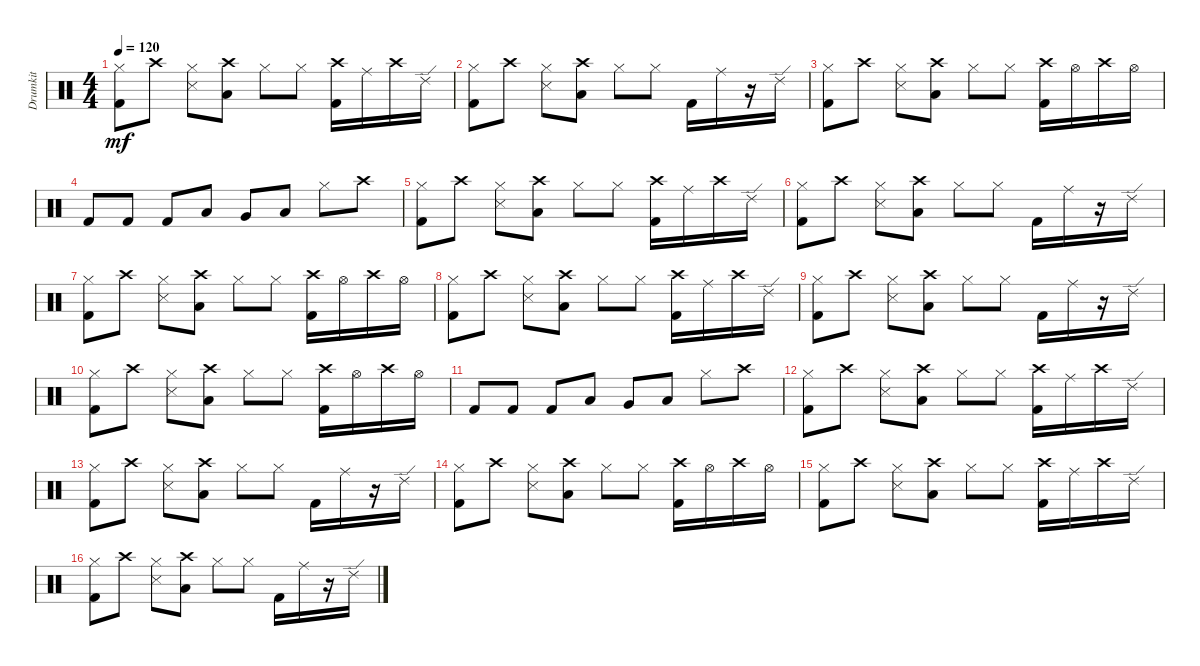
\track ("Drumkit" "Drumkit") {instrument percussion}
\staff {score}
\articulation defaults
\ts (4 4)
\tempo 120
\clef neutral
\ks c
("Hi-Hat (closed)" "Kick (hit) 2").8{dy mf} "Crash high (hit)".8 ("Hi-Hat (closed)" "Snare (side stick) 3").8 ("Crash high (hit)" "Low Floor Tom (hit)").8 "Hi-Hat (closed)".8 "Hi-Hat (closed)".8 ("Crash high (hit)" "Kick (hit) 2").16 "Ride (middle)".16 "Crash high (hit)".16 "Ride (edge) 2".16 |
("Hi-Hat (closed)" "Kick (hit) 2").8 "Crash high (hit)".8 ("Hi-Hat (closed)" "Snare (side stick) 3").8 ("Crash high (hit)" "Low Floor Tom (hit)").8 "Hi-Hat (closed)".8 "Hi-Hat (closed)".8 "Kick (hit) 2".16 "Ride (middle)".16 r.16 "Ride (edge) 2".16 |
("Hi-Hat (closed)" "Kick (hit) 2").8 "Crash high (hit)".8 ("Hi-Hat (closed)" "Snare (side stick) 3").8 ("Crash high (hit)" "Low Floor Tom (hit)").8 "Hi-Hat (closed)".8 "Hi-Hat (closed)".8 ("Crash high (hit)" "Kick (hit) 2").16 "Hi-Hat (open)".16 "Crash high (hit)".16 "Hi-Hat (open)".16 |
"Kick (hit) 2".8 "Kick (hit) 2".8 "Kick (hit) 2".8 "Low Floor Tom (hit)".8 "Very Low Tom (hit)".8 "Low Tom (hit)".8 "Hi-Hat (closed)".8 "Crash high (hit)".8 |
("Hi-Hat (closed)" "Kick (hit) 2").8 "Crash high (hit)".8 ("Hi-Hat (closed)" "Snare (side stick) 3").8 ("Crash high (hit)" "Low Floor Tom (hit)").8 "Hi-Hat (closed)".8 "Hi-Hat (closed)".8 ("Crash high (hit)" "Kick (hit) 2").16 "Ride (middle)".16 "Crash high (hit)".16 "Ride (edge) 2".16 |
("Hi-Hat (closed)" "Kick (hit) 2").8 "Crash high (hit)".8 ("Hi-Hat (closed)" "Snare (side stick) 3").8 ("Crash high (hit)" "Low Floor Tom (hit)").8 "Hi-Hat (closed)".8 "Hi-Hat (closed)".8 "Kick (hit) 2".16 "Ride (middle)".16 r.16 "Ride (edge) 2".16 |
("Hi-Hat (closed)" "Kick (hit) 2").8 "Crash high (hit)".8 ("Hi-Hat (closed)" "Snare (side stick) 3").8 ("Crash high (hit)" "Low Floor Tom (hit)").8 "Hi-Hat (closed)".8 "Hi-Hat (closed)".8 ("Crash high (hit)" "Kick (hit) 2").16 "Hi-Hat (open)".16 "Crash high (hit)".16 "Hi-Hat (open)".16 |
("Hi-Hat (closed)" "Kick (hit) 2").8 "Crash high (hit)".8 ("Hi-Hat (closed)" "Snare (side stick) 3").8 ("Crash high (hit)" "Low Floor Tom (hit)").8 "Hi-Hat (closed)".8 "Hi-Hat (closed)".8 ("Crash high (hit)" "Kick (hit) 2").16 "Ride (middle)".16 "Crash high (hit)".16 "Ride (edge) 2".16 |
("Hi-Hat (closed)" "Kick (hit) 2").8 "Crash high (hit)".8 ("Hi-Hat (closed)" "Snare (side stick) 3").8 ("Crash high (hit)" "Low Floor Tom (hit)").8 "Hi-Hat (closed)".8 "Hi-Hat (closed)".8 "Kick (hit) 2".16 "Ride (middle)".16 r.16 "Ride (edge) 2".16 |
("Hi-Hat (closed)" "Kick (hit) 2").8 "Crash high (hit)".8 ("Hi-Hat (closed)" "Snare (side stick) 3").8 ("Crash high (hit)" "Low Floor Tom (hit)").8 "Hi-Hat (closed)".8 "Hi-Hat (closed)".8 ("Crash high (hit)" "Kick (hit) 2").16 "Hi-Hat (open)".16 "Crash high (hit)".16 "Hi-Hat (open)".16 |
"Kick (hit) 2".8 "Kick (hit) 2".8 "Kick (hit) 2".8 "Low Floor Tom (hit)".8 "Very Low Tom (hit)".8 "Low Tom (hit)".8 "Hi-Hat (closed)".8 "Crash high (hit)".8 |
("Hi-Hat (closed)" "Kick (hit) 2").8 "Crash high (hit)".8 ("Hi-Hat (closed)" "Snare (side stick) 3").8 ("Crash high (hit)" "Low Floor Tom (hit)").8 "Hi-Hat (closed)".8 "Hi-Hat (closed)".8 ("Crash high (hit)" "Kick (hit) 2").16 "Ride (middle)".16 "Crash high (hit)".16 "Ride (edge) 2".16 |
("Hi-Hat (closed)" "Kick (hit) 2").8 "Crash high (hit)".8 ("Hi-Hat (closed)" "Snare (side stick) 3").8 ("Crash high (hit)" "Low Floor Tom (hit)").8 "Hi-Hat (closed)".8 "Hi-Hat (closed)".8 "Kick (hit) 2".16 "Ride (middle)".16 r.16 "Ride (edge) 2".16 |
("Hi-Hat (closed)" "Kick (hit) 2").8 "Crash high (hit)".8 ("Hi-Hat (closed)" "Snare (side stick) 3").8 ("Crash high (hit)" "Low Floor Tom (hit)").8 "Hi-Hat (closed)".8 "Hi-Hat (closed)".8 ("Crash high (hit)" "Kick (hit) 2").16 "Hi-Hat (open)".16 "Crash high (hit)".16 "Hi-Hat (open)".16 |
("Hi-Hat (closed)" "Kick (hit) 2").8 "Crash high (hit)".8 ("Hi-Hat (closed)" "Snare (side stick) 3").8 ("Crash high (hit)" "Low Floor Tom (hit)").8 "Hi-Hat (closed)".8 "Hi-Hat (closed)".8 ("Crash high (hit)" "Kick (hit) 2").16 "Ride (middle)".16 "Crash high (hit)".16 "Ride (edge) 2".16 |
("Hi-Hat (closed)" "Kick (hit) 2").8 "Crash high (hit)".8 ("Hi-Hat (closed)" "Snare (side stick) 3").8 ("Crash high (hit)" "Low Floor Tom (hit)").8 "Hi-Hat (closed)".8 "Hi-Hat (closed)".8 "Kick (hit) 2".16 "Ride (middle)".16 r.16 "Ride (edge) 2".16
